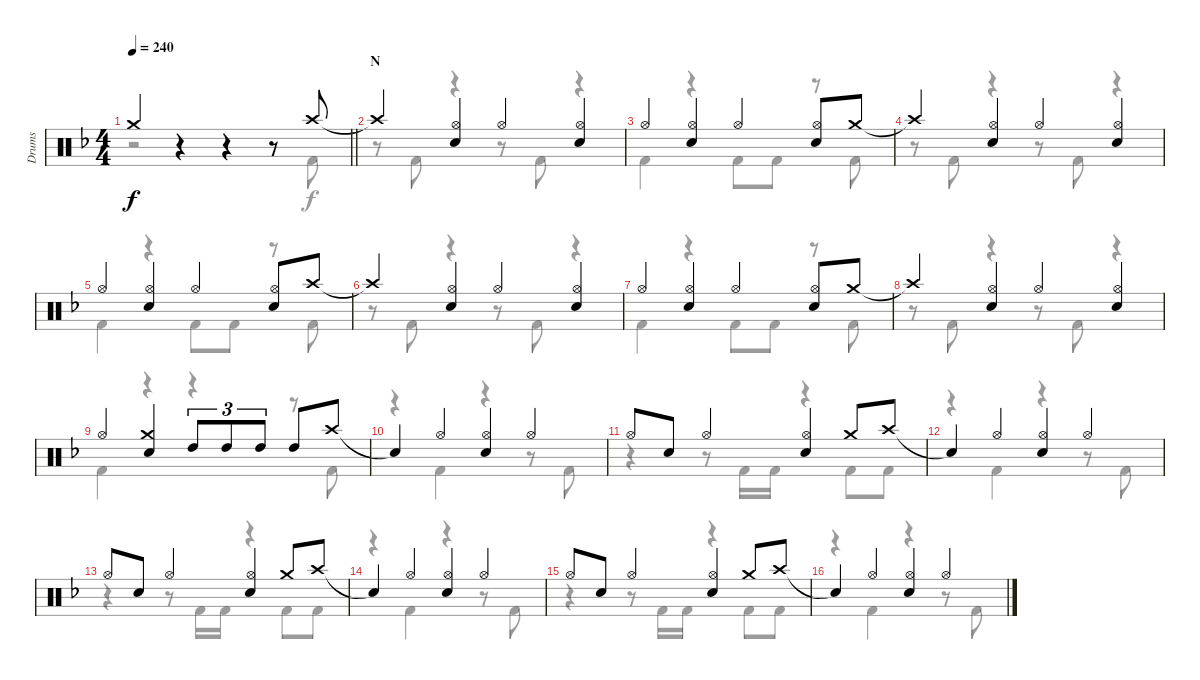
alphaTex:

\track ("Drums" "Drums") {instrument percussion}
\staff {score}
\articulation defaults
\voice
\ts (4 4)
\tempo 240
\clef neutral
\barLineRight lightlight
\ks f "Crash medium (hit)".4{dy f}
r.4 r.4 r.8 "Crash high (hit)".8 |
\section ("" "N")
"Crash high (hit)"{t}.4 ("Hi-Hat (open)" "Snare (hit) 2").4 "Hi-Hat (open)".4 ("Hi-Hat (open)" "Snare (hit) 2").4 |
"Hi-Hat (open)".4 ("Hi-Hat (open)" "Snare (hit) 2").4 "Hi-Hat (open)".4 ("Hi-Hat (open)" "Snare (hit) 2").8 "Crash medium (hit)".8 |
"Crash high (hit)"{t}.4 ("Hi-Hat (open)" "Snare (hit) 2").4 "Hi-Hat (open)".4 ("Hi-Hat (open)" "Snare (hit) 2").4 |
"Hi-Hat (open)".4 ("Hi-Hat (open)" "Snare (hit) 2").4 "Hi-Hat (open)".4 ("Hi-Hat (open)" "Snare (hit) 2").8 "Crash high (hit)".8 |
"Crash high (hit)"{t}.4 ("Hi-Hat (open)" "Snare (hit) 2").4 "Hi-Hat (open)".4 ("Hi-Hat (open)" "Snare (hit) 2").4 |
"Hi-Hat (open)".4 ("Hi-Hat (open)" "Snare (hit) 2").4 "Hi-Hat (open)".4 ("Hi-Hat (open)" "Snare (hit) 2").8 "Crash medium (hit)".8 |
"Crash high (hit)"{t}.4 ("Hi-Hat (open)" "Snare (hit) 2").4 "Hi-Hat (open)".4 ("Hi-Hat (open)" "Snare (hit) 2").4 |
"Hi-Hat (open)".4 ("Crash medium (hit)" "Snare (hit) 2").4 "High Tom (hit)".8{tu (3 2)} "High Tom (hit)".8{tu (3 2)} "High Tom (hit)".8{tu (3 2)} "High Tom (hit)".8 "Crash high (hit)".8 |
"Snare (hit)"{t}.4 "Hi-Hat (open)".4 ("Hi-Hat (open)" "Snare (hit) 2").4 "Hi-Hat (open)".4 |
"Hi-Hat (open)".8 "Snare (hit) 2".8 "Hi-Hat (open)".4 ("Hi-Hat (open)" "Snare (hit) 2").4 "Crash medium (hit)".8 "Crash high (hit)".8 |
"Snare (hit)"{t}.4 "Hi-Hat (open)".4 ("Hi-Hat (open)" "Snare (hit) 2").4 "Hi-Hat (open)".4 |
"Hi-Hat (open)".8 "Snare (hit) 2".8 "Hi-Hat (open)".4 ("Hi-Hat (open)" "Snare (hit) 2").4 "Crash medium (hit)".8 "Crash high (hit)".8 |
"Snare (hit)"{t}.4 "Hi-Hat (open)".4 ("Hi-Hat (open)" "Snare (hit) 2").4 "Hi-Hat (open)".4 |
"Hi-Hat (open)".8 "Snare (hit) 2".8 "Hi-Hat (open)".4 ("Hi-Hat (open)" "Snare (hit) 2").4 "Crash medium (hit)".8 "Crash high (hit)".8 |
"Snare (hit)"{t}.4 "Hi-Hat (open)".4 ("Hi-Hat (open)" "Snare (hit) 2").4 "Hi-Hat (open)".4
\voice
\clef neutral
\ottava regular
\simile none
\barLineRight lightlight
\ks f
r.2{dy f} r.4 r.8 "Kick (hit) 2".8 |
r.8 "Kick (hit) 2".8 r.4 r.8 "Kick (hit) 2".8 r.4 |
"Kick (hit) 2".4 r.4 "Kick (hit) 2".8 "Kick (hit) 2".8 r.8 "Kick (hit) 2".8 |
r.8 "Kick (hit) 2".8 r.4 r.8 "Kick (hit) 2".8 r.4 |
"Kick (hit) 2".4 r.4 "Kick (hit) 2".8 "Kick (hit) 2".8 r.8 "Kick (hit) 2".8 |
r.8 "Kick (hit) 2".8 r.4 r.8 "Kick (hit) 2".8 r.4 |
"Kick (hit) 2".4 r.4 "Kick (hit) 2".8 "Kick (hit) 2".8 r.8 "Kick (hit) 2".8 |
r.8 "Kick (hit) 2".8 r.4 r.8 "Kick (hit) 2".8 r.4 |
"Kick (hit) 2".4 r.4 r.4 r.8 "Kick (hit) 2".8 |
r.4 "Kick (hit) 2".4 r.4 r.8 "Kick (hit) 2".8 |
r.4 r.8 "Kick (hit) 2".16 "Kick (hit) 2".16 r.4 "Kick (hit) 2".8 "Kick (hit) 2".8 |
r.4 "Kick (hit) 2".4 r.4 r.8 "Kick (hit) 2".8 |
r.4 r.8 "Kick (hit) 2".16 "Kick (hit) 2".16 r.4 "Kick (hit) 2".8 "Kick (hit) 2".8 |
r.4 "Kick (hit) 2".4 r.4 r.8 "Kick (hit) 2".8 |
r.4 r.8 "Kick (hit) 2".16 "Kick (hit) 2".16 r.4 "Kick (hit) 2".8 "Kick (hit) 2".8 |
r.4 "Kick (hit) 2".4 r.4 r.8 "Kick (hit) 2".8
